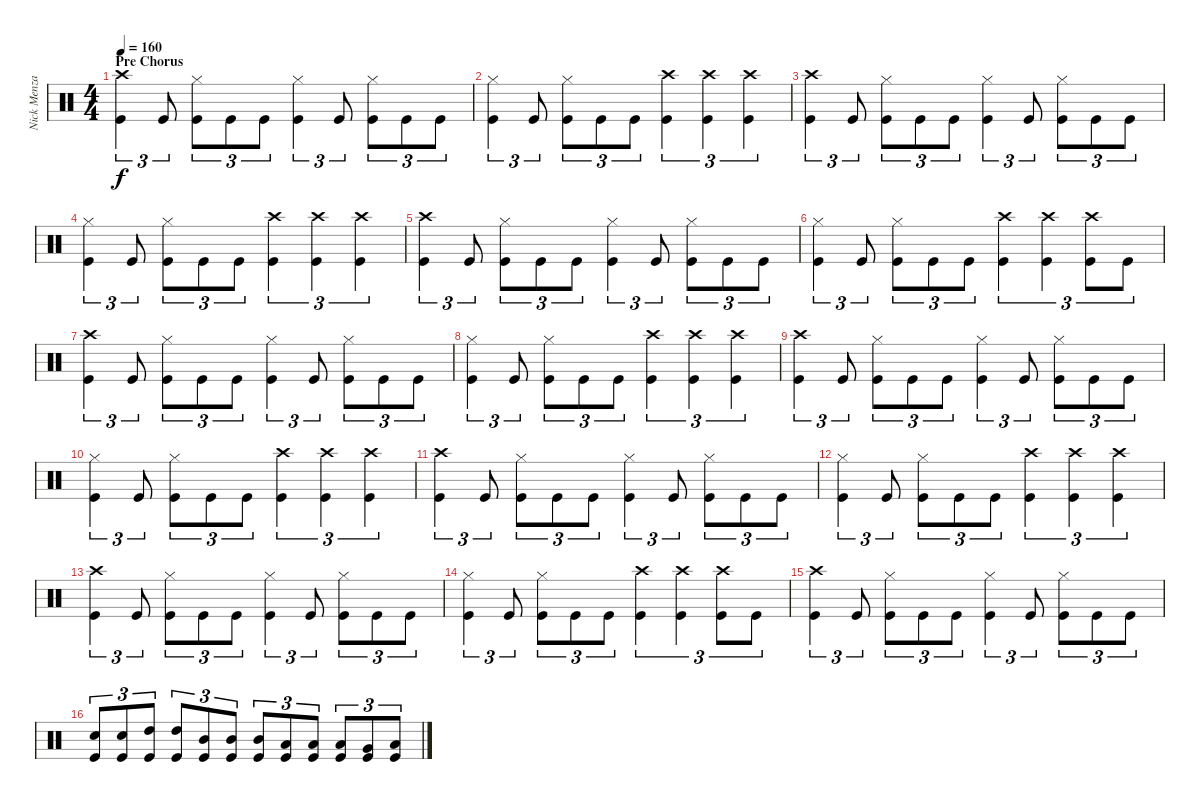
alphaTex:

\track ("Nick Menza" "Nick Menza") {instrument percussion}
\staff {score}
\articulation defaults
\ts (4 4)
\section ("" "Pre Chorus")
\tempo 160
\clef neutral
\ks c
("Crash high (hit)" "Kick (hit)").4{tu (3 2) dy f} "Kick (hit)".8{tu (3 2)} ("Hi-Hat (closed)" "Kick (hit)").8{tu (3 2)} "Kick (hit)".8{tu (3 2)} "Kick (hit)".8{tu (3 2)} ("Hi-Hat (closed)" "Kick (hit)").4{tu (3 2)} "Kick (hit)".8{tu (3 2)} ("Hi-Hat (closed)" "Kick (hit)").8{tu (3 2)} "Kick (hit)".8{tu (3 2)} "Kick (hit)".8{tu (3 2)} |
("Hi-Hat (closed)" "Kick (hit)").4{tu (3 2)} "Kick (hit)".8{tu (3 2)} ("Hi-Hat (closed)" "Kick (hit)").8{tu (3 2)} "Kick (hit)".8{tu (3 2)} "Kick (hit)".8{tu (3 2)} ("Crash high (hit)" "Kick (hit)").4{tu (3 2)} ("Crash high (hit)" "Kick (hit)").4{tu (3 2)} ("Crash high (hit)" "Kick (hit)").4{tu (3 2)} |
("Crash high (hit)" "Kick (hit)").4{tu (3 2)} "Kick (hit)".8{tu (3 2)} ("Hi-Hat (closed)" "Kick (hit)").8{tu (3 2)} "Kick (hit)".8{tu (3 2)} "Kick (hit)".8{tu (3 2)} ("Hi-Hat (closed)" "Kick (hit)").4{tu (3 2)} "Kick (hit)".8{tu (3 2)} ("Hi-Hat (closed)" "Kick (hit)").8{tu (3 2)} "Kick (hit)".8{tu (3 2)} "Kick (hit)".8{tu (3 2)} |
("Hi-Hat (closed)" "Kick (hit)").4{tu (3 2)} "Kick (hit)".8{tu (3 2)} ("Hi-Hat (closed)" "Kick (hit)").8{tu (3 2)} "Kick (hit)".8{tu (3 2)} "Kick (hit)".8{tu (3 2)} ("Crash high (hit)" "Kick (hit)").4{tu (3 2)} ("Crash high (hit)" "Kick (hit)").4{tu (3 2)} ("Crash high (hit)" "Kick (hit)").4{tu (3 2)} |
("Crash high (hit)" "Kick (hit)").4{tu (3 2)} "Kick (hit)".8{tu (3 2)} ("Hi-Hat (closed)" "Kick (hit)").8{tu (3 2)} "Kick (hit)".8{tu (3 2)} "Kick (hit)".8{tu (3 2)} ("Hi-Hat (closed)" "Kick (hit)").4{tu (3 2)} "Kick (hit)".8{tu (3 2)} ("Hi-Hat (closed)" "Kick (hit)").8{tu (3 2)} "Kick (hit)".8{tu (3 2)} "Kick (hit)".8{tu (3 2)} |
("Hi-Hat (closed)" "Kick (hit)").4{tu (3 2)} "Kick (hit)".8{tu (3 2)} ("Hi-Hat (closed)" "Kick (hit)").8{tu (3 2)} "Kick (hit)".8{tu (3 2)} "Kick (hit)".8{tu (3 2)} ("Crash high (hit)" "Kick (hit)").4{tu (3 2)} ("Crash high (hit)" "Kick (hit)").4{tu (3 2)} ("Crash high (hit)" "Kick (hit)").8{tu (3 2)} "Kick (hit)".8{tu (3 2)} |
("Crash high (hit)" "Kick (hit)").4{tu (3 2)} "Kick (hit)".8{tu (3 2)} ("Hi-Hat (closed)" "Kick (hit)").8{tu (3 2)} "Kick (hit)".8{tu (3 2)} "Kick (hit)".8{tu (3 2)} ("Hi-Hat (closed)" "Kick (hit)").4{tu (3 2)} "Kick (hit)".8{tu (3 2)} ("Hi-Hat (closed)" "Kick (hit)").8{tu (3 2)} "Kick (hit)".8{tu (3 2)} "Kick (hit)".8{tu (3 2)} |
("Hi-Hat (closed)" "Kick (hit)").4{tu (3 2)} "Kick (hit)".8{tu (3 2)} ("Hi-Hat (closed)" "Kick (hit)").8{tu (3 2)} "Kick (hit)".8{tu (3 2)} "Kick (hit)".8{tu (3 2)} ("Crash high (hit)" "Kick (hit)").4{tu (3 2)} ("Crash high (hit)" "Kick (hit)").4{tu (3 2)} ("Crash high (hit)" "Kick (hit)").4{tu (3 2)} |
("Crash high (hit)" "Kick (hit)").4{tu (3 2)} "Kick (hit)".8{tu (3 2)} ("Hi-Hat (closed)" "Kick (hit)").8{tu (3 2)} "Kick (hit)".8{tu (3 2)} "Kick (hit)".8{tu (3 2)} ("Hi-Hat (closed)" "Kick (hit)").4{tu (3 2)} "Kick (hit)".8{tu (3 2)} ("Hi-Hat (closed)" "Kick (hit)").8{tu (3 2)} "Kick (hit)".8{tu (3 2)} "Kick (hit)".8{tu (3 2)} |
("Hi-Hat (closed)" "Kick (hit)").4{tu (3 2)} "Kick (hit)".8{tu (3 2)} ("Hi-Hat (closed)" "Kick (hit)").8{tu (3 2)} "Kick (hit)".8{tu (3 2)} "Kick (hit)".8{tu (3 2)} ("Crash high (hit)" "Kick (hit)").4{tu (3 2)} ("Crash high (hit)" "Kick (hit)").4{tu (3 2)} ("Crash high (hit)" "Kick (hit)").4{tu (3 2)} |
("Crash high (hit)" "Kick (hit)").4{tu (3 2)} "Kick (hit)".8{tu (3 2)} ("Hi-Hat (closed)" "Kick (hit)").8{tu (3 2)} "Kick (hit)".8{tu (3 2)} "Kick (hit)".8{tu (3 2)} ("Hi-Hat (closed)" "Kick (hit)").4{tu (3 2)} "Kick (hit)".8{tu (3 2)} ("Hi-Hat (closed)" "Kick (hit)").8{tu (3 2)} "Kick (hit)".8{tu (3 2)} "Kick (hit)".8{tu (3 2)} |
("Hi-Hat (closed)" "Kick (hit)").4{tu (3 2)} "Kick (hit)".8{tu (3 2)} ("Hi-Hat (closed)" "Kick (hit)").8{tu (3 2)} "Kick (hit)".8{tu (3 2)} "Kick (hit)".8{tu (3 2)} ("Crash high (hit)" "Kick (hit)").4{tu (3 2)} ("Crash high (hit)" "Kick (hit)").4{tu (3 2)} ("Crash high (hit)" "Kick (hit)").4{tu (3 2)} |
("Crash high (hit)" "Kick (hit)").4{tu (3 2)} "Kick (hit)".8{tu (3 2)} ("Hi-Hat (closed)" "Kick (hit)").8{tu (3 2)} "Kick (hit)".8{tu (3 2)} "Kick (hit)".8{tu (3 2)} ("Hi-Hat (closed)" "Kick (hit)").4{tu (3 2)} "Kick (hit)".8{tu (3 2)} ("Hi-Hat (closed)" "Kick (hit)").8{tu (3 2)} "Kick (hit)".8{tu (3 2)} "Kick (hit)".8{tu (3 2)} |
("Hi-Hat (closed)" "Kick (hit)").4{tu (3 2)} "Kick (hit)".8{tu (3 2)} ("Hi-Hat (closed)" "Kick (hit)").8{tu (3 2)} "Kick (hit)".8{tu (3 2)} "Kick (hit)".8{tu (3 2)} ("Crash high (hit)" "Kick (hit)").4{tu (3 2)} ("Crash high (hit)" "Kick (hit)").4{tu (3 2)} ("Crash high (hit)" "Kick (hit)").8{tu (3 2)} "Kick (hit)".8{tu (3 2)} |
("Crash high (hit)" "Kick (hit)").4{tu (3 2)} "Kick (hit)".8{tu (3 2)} ("Hi-Hat (closed)" "Kick (hit)").8{tu (3 2)} "Kick (hit)".8{tu (3 2)} "Kick (hit)".8{tu (3 2)} ("Hi-Hat (closed)" "Kick (hit)").4{tu (3 2)} "Kick (hit)".8{tu (3 2)} ("Hi-Hat (closed)" "Kick (hit)").8{tu (3 2)} "Kick (hit)".8{tu (3 2)} "Kick (hit)".8{tu (3 2)} |
("Snare (hit) 2" "Kick (hit)").8{tu (3 2)} ("Snare (hit) 2" "Kick (hit)").8{tu (3 2)} ("High Tom (hit)" "Kick (hit)").8{tu (3 2)} ("High Tom (hit)" "Kick (hit)").8{tu (3 2)} ("Mid Tom (hit)" "Kick (hit)").8{tu (3 2)} ("Mid Tom (hit)" "Kick (hit)").8{tu (3 2)} ("Mid Tom (hit)" "Kick (hit)").8{tu (3 2)} ("Low Tom (hit)" "Kick (hit)").8{tu (3 2)} ("Low Tom (hit)" "Kick (hit)").8{tu (3 2)} ("Low Tom (hit)" "Kick (hit)").8{tu (3 2)} ("Very Low Tom (hit)" "Kick (hit)").8{tu (3 2)} ("Low Floor Tom (hit)" "Kick (hit)").8{tu (3 2)}
